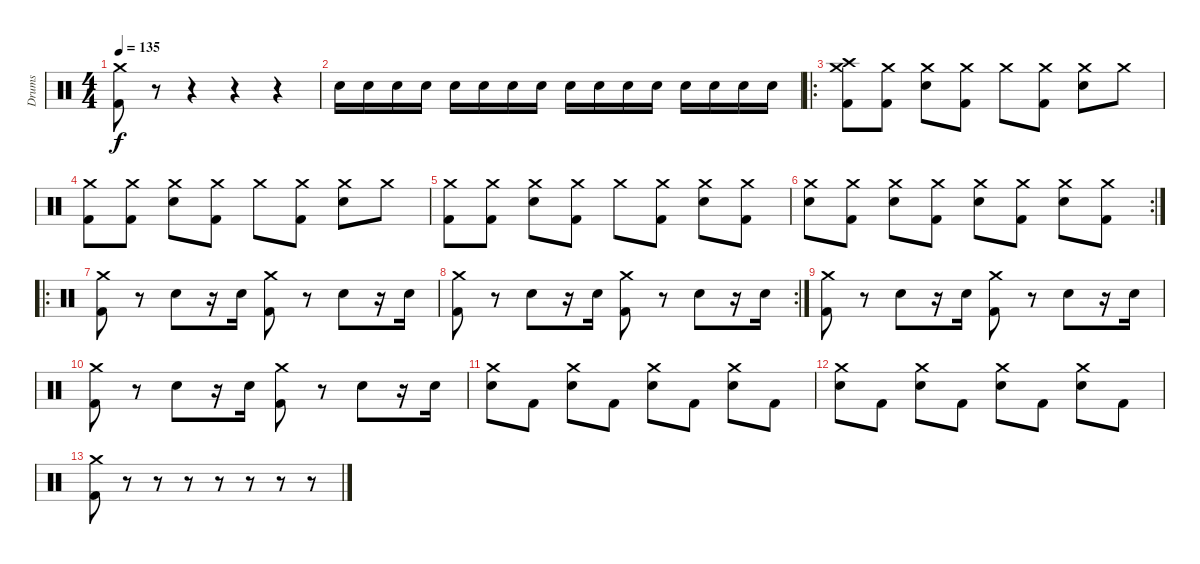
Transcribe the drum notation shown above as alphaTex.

\track ("Drums" "Drums") {instrument percussion}
\staff {score}
\articulation defaults
\ts (4 4)
\tempo 135
\clef neutral
\ks c
("Crash medium (hit)" "Kick (hit) 2").8{dy f} r.8 r.4 r.4 r.4 |
"Electric Snare (hit)".16 "Electric Snare (hit)".16 "Electric Snare (hit)".16 "Electric Snare (hit)".16 "Electric Snare (hit)".16 "Electric Snare (hit)".16 "Electric Snare (hit)".16 "Electric Snare (hit)".16 "Electric Snare (hit)".16 "Electric Snare (hit)".16 "Electric Snare (hit)".16 "Electric Snare (hit)".16 "Electric Snare (hit)".16 "Electric Snare (hit)".16 "Electric Snare (hit)".16 "Electric Snare (hit)".16 |
\ro
("Crash medium (hit)" "Crash high (hit)" "Kick (hit) 2").8 ("Crash medium (hit)" "Kick (hit) 2").8 ("Crash medium (hit)" "Electric Snare (hit)").8 ("Crash medium (hit)" "Kick (hit) 2").8 "Crash medium (hit)".8 ("Crash medium (hit)" "Kick (hit) 2").8 ("Crash medium (hit)" "Electric Snare (hit)").8 "Crash medium (hit)".8 |
("Crash medium (hit)" "Kick (hit) 2").8 ("Crash medium (hit)" "Kick (hit) 2").8 ("Crash medium (hit)" "Electric Snare (hit)").8 ("Crash medium (hit)" "Kick (hit) 2").8 "Crash medium (hit)".8 ("Crash medium (hit)" "Kick (hit) 2").8 ("Crash medium (hit)" "Electric Snare (hit)").8 "Crash medium (hit)".8 |
("Crash medium (hit)" "Kick (hit) 2").8 ("Crash medium (hit)" "Kick (hit) 2").8 ("Crash medium (hit)" "Electric Snare (hit)").8 ("Crash medium (hit)" "Kick (hit) 2").8 "Crash medium (hit)".8 ("Crash medium (hit)" "Kick (hit) 2").8 ("Crash medium (hit)" "Electric Snare (hit)").8 ("Crash medium (hit)" "Kick (hit) 2").8 |
\rc 2
("Crash medium (hit)" "Electric Snare (hit)").8 ("Crash medium (hit)" "Kick (hit) 2").8 ("Crash medium (hit)" "Electric Snare (hit)").8 ("Crash medium (hit)" "Kick (hit) 2").8 ("Crash medium (hit)" "Electric Snare (hit)").8 ("Crash medium (hit)" "Kick (hit) 2").8 ("Crash medium (hit)" "Electric Snare (hit)").8 ("Crash medium (hit)" "Kick (hit) 2").8 |
\ro
("Crash medium (hit)" "Kick (hit) 2").8 r.8 "Electric Snare (hit)".8 r.16 "Electric Snare (hit)".16 ("Crash medium (hit)" "Kick (hit) 2").8 r.8 "Electric Snare (hit)".8 r.16 "Electric Snare (hit)".16 |
\rc 2
("Crash medium (hit)" "Kick (hit) 2").8 r.8 "Electric Snare (hit)".8 r.16 "Electric Snare (hit)".16 ("Crash medium (hit)" "Kick (hit) 2").8 r.8 "Electric Snare (hit)".8 r.16 "Electric Snare (hit)".16 |
("Crash medium (hit)" "Kick (hit) 2").8 r.8 "Electric Snare (hit)".8 r.16 "Electric Snare (hit)".16 ("Crash medium (hit)" "Kick (hit) 2").8 r.8 "Electric Snare (hit)".8 r.16 "Electric Snare (hit)".16 |
("Crash medium (hit)" "Kick (hit) 2").8 r.8 "Electric Snare (hit)".8 r.16 "Electric Snare (hit)".16 ("Crash medium (hit)" "Kick (hit) 2").8 r.8 "Electric Snare (hit)".8 r.16 "Electric Snare (hit)".16 |
("Crash medium (hit)" "Electric Snare (hit)").8 "Kick (hit) 2".8 ("Crash medium (hit)" "Electric Snare (hit)").8 "Kick (hit) 2".8 ("Crash medium (hit)" "Electric Snare (hit)").8 "Kick (hit) 2".8 ("Crash medium (hit)" "Electric Snare (hit)").8 "Kick (hit) 2".8 |
("Crash medium (hit)" "Electric Snare (hit)").8 "Kick (hit) 2".8 ("Crash medium (hit)" "Electric Snare (hit)").8 "Kick (hit) 2".8 ("Crash medium (hit)" "Electric Snare (hit)").8 "Kick (hit) 2".8 ("Crash medium (hit)" "Electric Snare (hit)").8 "Kick (hit) 2".8 |
("Crash medium (hit)" "Kick (hit) 2").8 r.8 r.8 r.8 r.8 r.8 r.8 r.8
